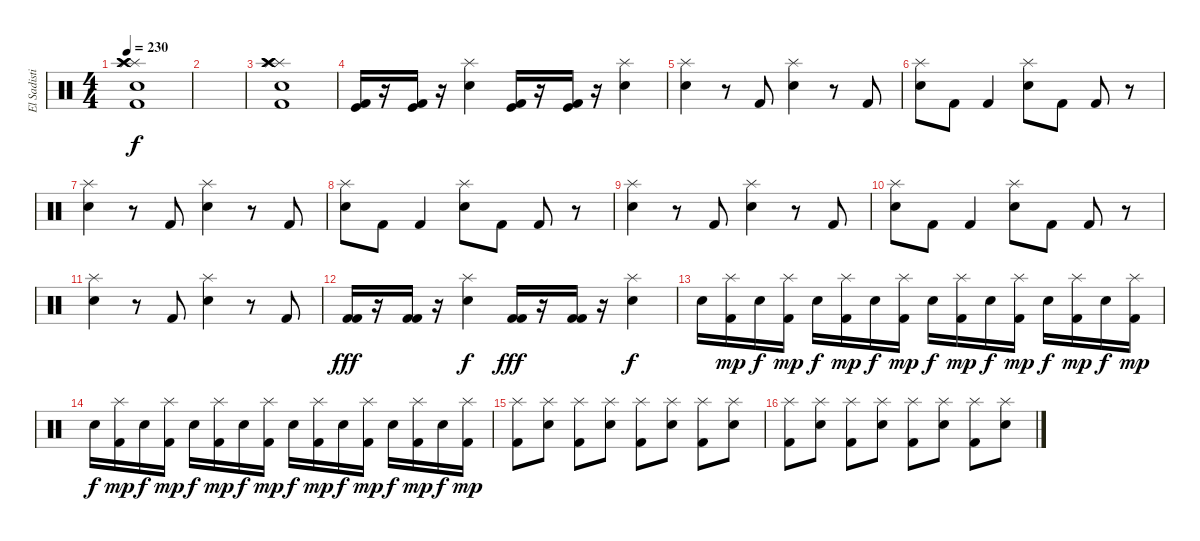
\track ("El Sadistico" "El Sadisti") {instrument percussion}
\staff {score}
\articulation defaults
\ts (4 4)
\tempo 230
\clef neutral
\ks c
("Splash (hit)" "Crash high (hit)" "Splash (hit)" "Electric Snare (hit)" "Crash high (hit)" "Kick (hit) 2").1{dy f} |
|
("Splash (hit)" "Crash high (hit)" "Splash (hit)" "Electric Snare (hit)" "Crash high (hit)" "Kick (hit) 2").1 |
("Kick (hit) 2" "Kick (hit)").16 r.16 ("Kick (hit) 2" "Kick (hit)").16 r.16 ("Splash (hit)" "Electric Snare (hit)").4 ("Kick (hit) 2" "Kick (hit)").16 r.16 ("Kick (hit) 2" "Kick (hit)").16 r.16 ("Splash (hit)" "Electric Snare (hit)").4 |
("Splash (hit)" "Electric Snare (hit)").4 r.8 "Kick (hit) 2".8 ("Splash (hit)" "Electric Snare (hit)").4 r.8 "Kick (hit) 2".8 |
("Splash (hit)" "Electric Snare (hit)").8 "Kick (hit) 2".8 "Kick (hit) 2".4 ("Splash (hit)" "Electric Snare (hit)").8 "Kick (hit) 2".8 "Kick (hit) 2".8 r.8 |
("Splash (hit)" "Electric Snare (hit)").4 r.8 "Kick (hit) 2".8 ("Splash (hit)" "Electric Snare (hit)").4 r.8 "Kick (hit) 2".8 |
("Splash (hit)" "Electric Snare (hit)").8 "Kick (hit) 2".8 "Kick (hit) 2".4 ("Splash (hit)" "Electric Snare (hit)").8 "Kick (hit) 2".8 "Kick (hit) 2".8 r.8 |
("Splash (hit)" "Electric Snare (hit)").4 r.8 "Kick (hit) 2".8 ("Splash (hit)" "Electric Snare (hit)").4 r.8 "Kick (hit) 2".8 |
("Splash (hit)" "Electric Snare (hit)").8 "Kick (hit) 2".8 "Kick (hit) 2".4 ("Splash (hit)" "Electric Snare (hit)").8 "Kick (hit) 2".8 "Kick (hit) 2".8 r.8 |
("Splash (hit)" "Electric Snare (hit)").4 r.8 "Kick (hit) 2".8 ("Splash (hit)" "Electric Snare (hit)").4 r.8 "Kick (hit) 2".8 |
("Kick (hit) 2" "Kick (hit) 2").16{dy fff} r.16 ("Kick (hit) 2" "Kick (hit) 2").16 r.16 ("Splash (hit)" "Snare (hit) 2").4{dy f} ("Kick (hit) 2" "Kick (hit) 2").16{dy fff} r.16 ("Kick (hit) 2" "Kick (hit) 2").16 r.16 ("Splash (hit)" "Snare (hit) 2").4{dy f} |
"Electric Snare (hit)".16 ("Splash (hit)" "Kick (hit) 2").16{dy mp} "Electric Snare (hit)".16{dy f} ("Splash (hit)" "Kick (hit) 2").16{dy mp} "Electric Snare (hit)".16{dy f} ("Splash (hit)" "Kick (hit) 2").16{dy mp} "Electric Snare (hit)".16{dy f} ("Splash (hit)" "Kick (hit) 2").16{dy mp} "Electric Snare (hit)".16{dy f} ("Splash (hit)" "Kick (hit) 2").16{dy mp} "Electric Snare (hit)".16{dy f} ("Splash (hit)" "Kick (hit) 2").16{dy mp} "Electric Snare (hit)".16{dy f} ("Splash (hit)" "Kick (hit) 2").16{dy mp} "Electric Snare (hit)".16{dy f} ("Splash (hit)" "Kick (hit) 2").16{dy mp} |
"Electric Snare (hit)".16{dy f} ("Splash (hit)" "Kick (hit) 2").16{dy mp} "Electric Snare (hit)".16{dy f} ("Splash (hit)" "Kick (hit) 2").16{dy mp} "Electric Snare (hit)".16{dy f} ("Splash (hit)" "Kick (hit) 2").16{dy mp} "Electric Snare (hit)".16{dy f} ("Splash (hit)" "Kick (hit) 2").16{dy mp} "Electric Snare (hit)".16{dy f} ("Splash (hit)" "Kick (hit) 2").16{dy mp} "Electric Snare (hit)".16{dy f} ("Splash (hit)" "Kick (hit) 2").16{dy mp} "Electric Snare (hit)".16{dy f} ("Splash (hit)" "Kick (hit) 2").16{dy mp} "Electric Snare (hit)".16{dy f} ("Splash (hit)" "Kick (hit) 2").16{dy mp} |
("Splash (hit)" "Kick (hit) 2").8 ("Splash (hit)" "Electric Snare (hit)").8 ("Splash (hit)" "Kick (hit) 2").8 ("Splash (hit)" "Electric Snare (hit)").8 ("Splash (hit)" "Kick (hit) 2").8 ("Splash (hit)" "Electric Snare (hit)").8 ("Splash (hit)" "Kick (hit) 2").8 ("Splash (hit)" "Electric Snare (hit)").8 |
("Splash (hit)" "Kick (hit) 2").8 ("Splash (hit)" "Electric Snare (hit)").8 ("Splash (hit)" "Kick (hit) 2").8 ("Splash (hit)" "Electric Snare (hit)").8 ("Splash (hit)" "Kick (hit) 2").8 ("Splash (hit)" "Electric Snare (hit)").8 ("Splash (hit)" "Kick (hit) 2").8 ("Splash (hit)" "Electric Snare (hit)").8
